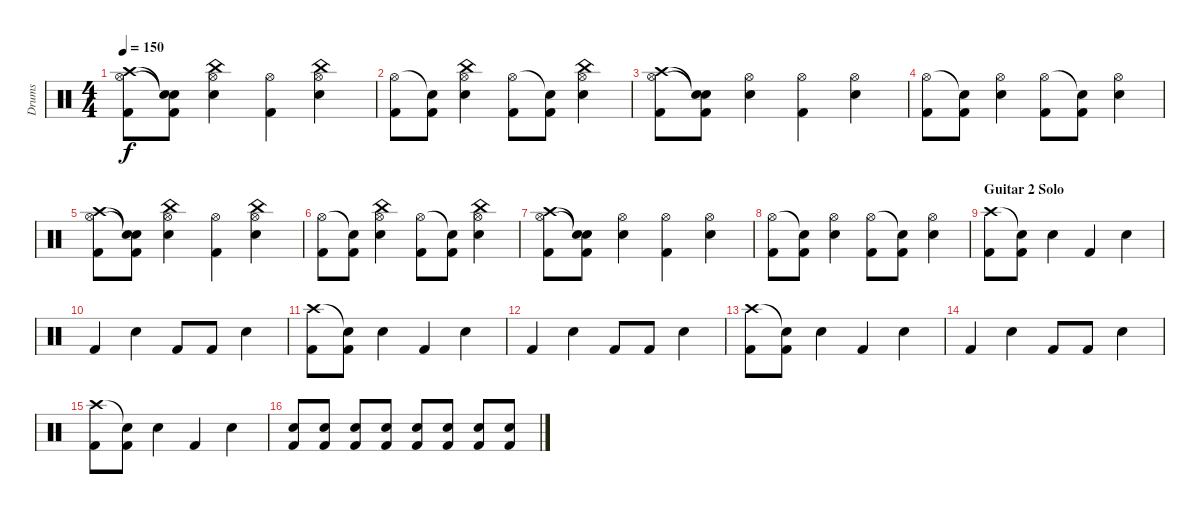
\track ("Drums" "Drums") {instrument percussion}
\staff {score}
\articulation defaults
\ts (4 4)
\tempo 150
\clef neutral
\ks c
("Crash high (hit)" "Hi-Hat (open)" "Kick (hit) 2").8{dy f} ("Snare (hit)"{t} "Snare (hit)"{t} "Kick (hit) 2").8 ("Snare (hit) 2" "Hi-Hat (open)" "China (hit)").4 ("Hi-Hat (open)" "Kick (hit) 2").4 ("Snare (hit) 2" "Hi-Hat (open)" "China (hit)").4 |
("Hi-Hat (open)" "Kick (hit) 2").8 ("Snare (hit)"{t} "Kick (hit) 2").8 ("Snare (hit) 2" "Hi-Hat (open)" "China (hit)").4 ("Hi-Hat (open)" "Kick (hit) 2").8 ("Snare (hit)"{t} "Kick (hit) 2").8 ("Snare (hit) 2" "Hi-Hat (open)" "China (hit)").4 |
("Crash high (hit)" "Hi-Hat (open)" "Kick (hit) 2").8 ("Snare (hit)"{t} "Snare (hit)"{t} "Kick (hit) 2").8 ("Snare (hit) 2" "Hi-Hat (open)").4 ("Hi-Hat (open)" "Kick (hit) 2").4 ("Snare (hit) 2" "Hi-Hat (open)").4 |
("Hi-Hat (open)" "Kick (hit) 2").8 ("Snare (hit)"{t} "Kick (hit) 2").8 ("Snare (hit) 2" "Hi-Hat (open)").4 ("Hi-Hat (open)" "Kick (hit) 2").8 ("Snare (hit)"{t} "Kick (hit) 2").8 ("Snare (hit) 2" "Hi-Hat (open)").4 |
("Crash high (hit)" "Hi-Hat (open)" "Kick (hit) 2").8 ("Snare (hit)"{t} "Snare (hit)"{t} "Kick (hit) 2").8 ("Snare (hit) 2" "Hi-Hat (open)" "China (hit)").4 ("Hi-Hat (open)" "Kick (hit) 2").4 ("Snare (hit) 2" "Hi-Hat (open)" "China (hit)").4 |
("Hi-Hat (open)" "Kick (hit) 2").8 ("Snare (hit)"{t} "Kick (hit) 2").8 ("Snare (hit) 2" "Hi-Hat (open)" "China (hit)").4 ("Hi-Hat (open)" "Kick (hit) 2").8 ("Snare (hit)"{t} "Kick (hit) 2").8 ("Snare (hit) 2" "Hi-Hat (open)" "China (hit)").4 |
("Crash high (hit)" "Hi-Hat (open)" "Kick (hit) 2").8 ("Snare (hit)"{t} "Snare (hit)"{t} "Kick (hit) 2").8 ("Snare (hit) 2" "Hi-Hat (open)").4 ("Hi-Hat (open)" "Kick (hit) 2").4 ("Snare (hit) 2" "Hi-Hat (open)").4 |
("Hi-Hat (open)" "Kick (hit) 2").8 ("Snare (hit)"{t} "Kick (hit) 2").8 ("Snare (hit) 2" "Hi-Hat (open)").4 ("Hi-Hat (open)" "Kick (hit) 2").8 ("Snare (hit)"{t} "Kick (hit) 2").8 ("Snare (hit) 2" "Hi-Hat (open)").4 |
\section ("" "Guitar 2 Solo")
("Crash high (hit)" "Kick (hit) 2").8 ("Snare (hit)"{t} "Kick (hit) 2").8 "Snare (hit) 2".4 "Kick (hit) 2".4 "Snare (hit) 2".4 |
"Kick (hit) 2".4 "Snare (hit) 2".4 "Kick (hit) 2".8 "Kick (hit) 2".8 "Snare (hit) 2".4 |
("Crash high (hit)" "Kick (hit) 2").8 ("Snare (hit)"{t} "Kick (hit) 2").8 "Snare (hit) 2".4 "Kick (hit) 2".4 "Snare (hit) 2".4 |
"Kick (hit) 2".4 "Snare (hit) 2".4 "Kick (hit) 2".8 "Kick (hit) 2".8 "Snare (hit) 2".4 |
("Crash high (hit)" "Kick (hit) 2").8 ("Snare (hit)"{t} "Kick (hit) 2").8 "Snare (hit) 2".4 "Kick (hit) 2".4 "Snare (hit) 2".4 |
"Kick (hit) 2".4 "Snare (hit) 2".4 "Kick (hit) 2".8 "Kick (hit) 2".8 "Snare (hit) 2".4 |
("Crash high (hit)" "Kick (hit) 2").8 ("Snare (hit)"{t} "Kick (hit) 2").8 "Snare (hit) 2".4 "Kick (hit) 2".4 "Snare (hit) 2".4 |
("Snare (hit) 2" "Kick (hit) 2").8 ("Snare (hit) 2" "Kick (hit) 2").8 ("Snare (hit) 2" "Kick (hit) 2").8 ("Snare (hit) 2" "Kick (hit) 2").8 ("Snare (hit) 2" "Kick (hit) 2").8 ("Snare (hit) 2" "Kick (hit) 2").8 ("Snare (hit) 2" "Kick (hit) 2").8 ("Snare (hit) 2" "Kick (hit) 2").8
